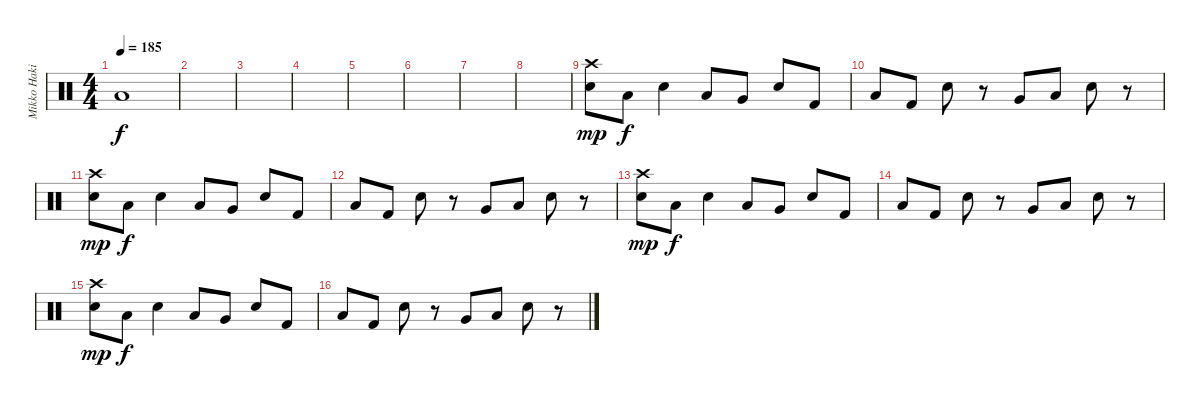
\track ("Mikko Hakila" "Mikko Haki") {instrument percussion}
\staff {score}
\articulation defaults
\ts (4 4)
\tempo 185
\clef neutral
\ks c "Low Floor Tom (hit)".1{dy f}
|
|
|
|
|
|
|
|
("Crash high (hit)" "Snare (hit) 2").8{dy mp} "Low Floor Tom (hit)".8{dy f} "Snare (hit) 2".4 "Low Tom (hit)".8 "Very Low Tom (hit)".8 "Snare (hit) 2".8 "Kick (hit) 2".8 |
"Low Tom (hit)".8 "Kick (hit) 2".8 "Snare (hit) 2".8 r.8 "Very Low Tom (hit)".8 "Low Floor Tom (hit)".8 "Snare (hit) 2".8 r.8 |
("Crash high (hit)" "Snare (hit) 2").8{dy mp} "Low Floor Tom (hit)".8{dy f} "Snare (hit) 2".4 "Low Tom (hit)".8 "Very Low Tom (hit)".8 "Snare (hit) 2".8 "Kick (hit) 2".8 |
"Low Tom (hit)".8 "Kick (hit) 2".8 "Snare (hit) 2".8 r.8 "Very Low Tom (hit)".8 "Low Floor Tom (hit)".8 "Snare (hit) 2".8 r.8 |
("Crash high (hit)" "Snare (hit) 2").8{dy mp} "Low Floor Tom (hit)".8{dy f} "Snare (hit) 2".4 "Low Tom (hit)".8 "Very Low Tom (hit)".8 "Snare (hit) 2".8 "Kick (hit) 2".8 |
"Low Tom (hit)".8 "Kick (hit) 2".8 "Snare (hit) 2".8 r.8 "Very Low Tom (hit)".8 "Low Floor Tom (hit)".8 "Snare (hit) 2".8 r.8 |
("Crash high (hit)" "Snare (hit) 2").8{dy mp} "Low Floor Tom (hit)".8{dy f} "Snare (hit) 2".4 "Low Tom (hit)".8 "Very Low Tom (hit)".8 "Snare (hit) 2".8 "Kick (hit) 2".8 |
"Low Tom (hit)".8 "Kick (hit) 2".8 "Snare (hit) 2".8 r.8 "Very Low Tom (hit)".8 "Low Floor Tom (hit)".8 "Snare (hit) 2".8 r.8
